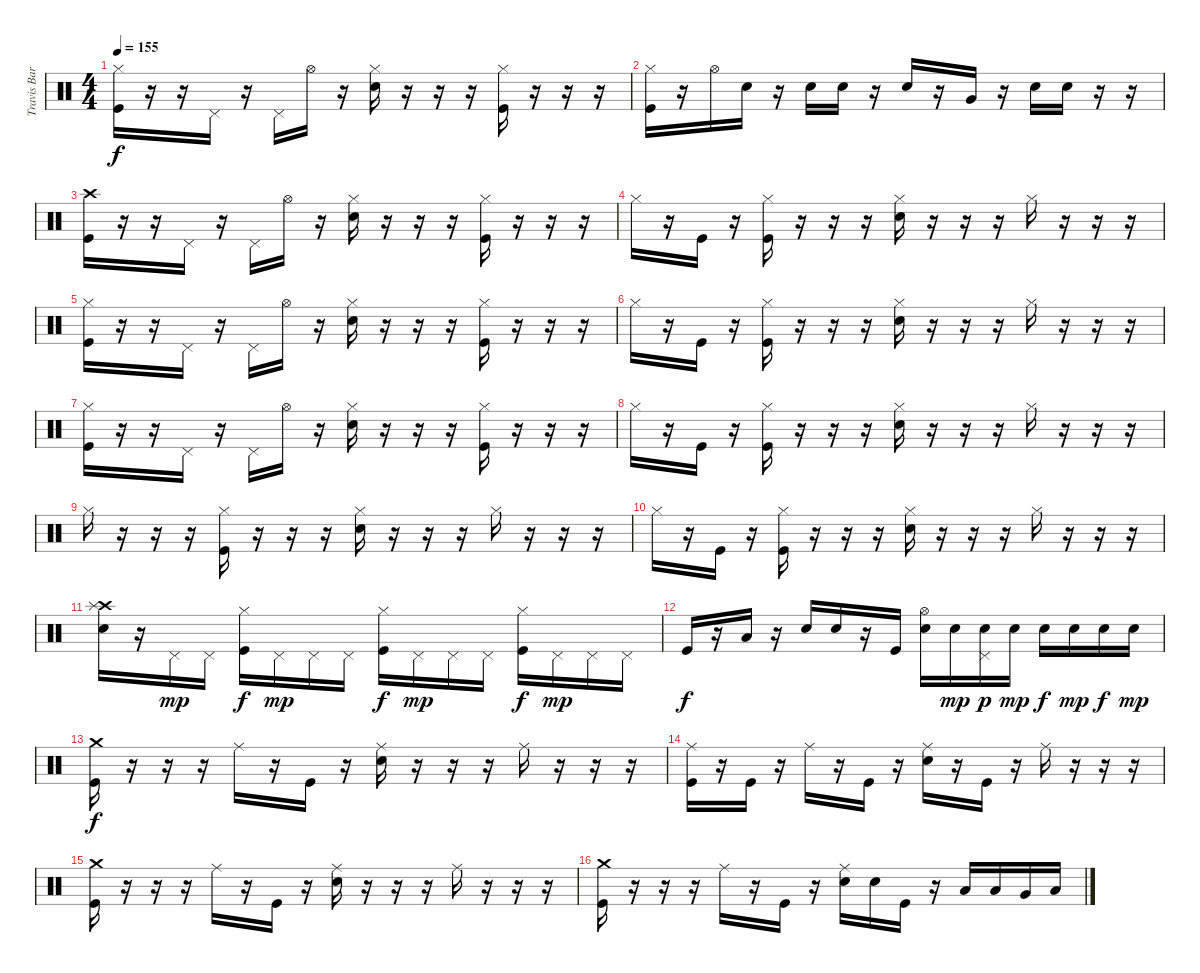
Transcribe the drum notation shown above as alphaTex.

\track ("Travis Barker(drums)" "Travis Bar") {instrument percussion}
\staff {score}
\articulation defaults
\ts (4 4)
\tempo 155
\clef neutral
\ks c
("Hi-Hat (closed)" "Kick (hit)").16{dy f} r.16 r.16 "Pedal Hi-Hat (hit)".16 r.16 "Pedal Hi-Hat (hit)".16 "Hi-Hat (open)".16 r.16 ("Hi-Hat (closed)" "Electric Snare (hit)").16 r.16 r.16 r.16 ("Hi-Hat (closed)" "Kick (hit)").16 r.16 r.16 r.16 |
("Hi-Hat (closed)" "Kick (hit)").16 r.16 "Hi-Hat (open)".16 "Electric Snare (hit)".16 r.16 "Electric Snare (hit)".16 "Electric Snare (hit)".16 r.16 "Electric Snare (hit)".16 r.16 "Very Low Tom (hit)".16 r.16 "Electric Snare (hit)".16 "Electric Snare (hit)".16 r.16 r.16 |
("Crash high (hit)" "Kick (hit)").16 r.16 r.16 "Pedal Hi-Hat (hit)".16 r.16 "Pedal Hi-Hat (hit)".16 "Hi-Hat (open)".16 r.16 ("Hi-Hat (closed)" "Electric Snare (hit)").16 r.16 r.16 r.16 ("Hi-Hat (closed)" "Kick (hit)").16 r.16 r.16 r.16 |
"Hi-Hat (closed)".16 r.16 "Kick (hit)".16 r.16 ("Hi-Hat (closed)" "Kick (hit)").16 r.16 r.16 r.16 ("Hi-Hat (closed)" "Electric Snare (hit)").16 r.16 r.16 r.16 "Hi-Hat (closed)".16 r.16 r.16 r.16 |
("Hi-Hat (closed)" "Kick (hit)").16 r.16 r.16 "Pedal Hi-Hat (hit)".16 r.16 "Pedal Hi-Hat (hit)".16 "Hi-Hat (open)".16 r.16 ("Hi-Hat (closed)" "Electric Snare (hit)").16 r.16 r.16 r.16 ("Hi-Hat (closed)" "Kick (hit)").16 r.16 r.16 r.16 |
"Hi-Hat (closed)".16 r.16 "Kick (hit)".16 r.16 ("Hi-Hat (closed)" "Kick (hit)").16 r.16 r.16 r.16 ("Hi-Hat (closed)" "Electric Snare (hit)").16 r.16 r.16 r.16 "Hi-Hat (closed)".16 r.16 r.16 r.16 |
("Hi-Hat (closed)" "Kick (hit)").16 r.16 r.16 "Pedal Hi-Hat (hit)".16 r.16 "Pedal Hi-Hat (hit)".16 "Hi-Hat (open)".16 r.16 ("Hi-Hat (closed)" "Electric Snare (hit)").16 r.16 r.16 r.16 ("Hi-Hat (closed)" "Kick (hit)").16 r.16 r.16 r.16 |
"Hi-Hat (closed)".16 r.16 "Kick (hit)".16 r.16 ("Hi-Hat (closed)" "Kick (hit)").16 r.16 r.16 r.16 ("Hi-Hat (closed)" "Electric Snare (hit)").16 r.16 r.16 r.16 "Hi-Hat (closed)".16 r.16 r.16 r.16 |
"Hi-Hat (closed)".16 r.16 r.16 r.16 ("Hi-Hat (closed)" "Kick (hit)").16 r.16 r.16 r.16 ("Hi-Hat (closed)" "Electric Snare (hit)").16 r.16 r.16 r.16 "Hi-Hat (closed)".16 r.16 r.16 r.16 |
"Hi-Hat (closed)".16 r.16 "Kick (hit)".16 r.16 ("Hi-Hat (closed)" "Kick (hit)").16 r.16 r.16 r.16 ("Hi-Hat (closed)" "Electric Snare (hit)").16 r.16 r.16 r.16 "Hi-Hat (closed)".16 r.16 r.16 r.16 |
("Crash high (hit)" "Splash (hit)" "Electric Snare (hit)").16 r.16 "Pedal Hi-Hat (hit)".16{dy mp} "Pedal Hi-Hat (hit)".16 ("Hi-Hat (closed)" "Kick (hit)").16{dy f} "Pedal Hi-Hat (hit)".16{dy mp} "Pedal Hi-Hat (hit)".16 "Pedal Hi-Hat (hit)".16 ("Hi-Hat (closed)" "Kick (hit)").16{dy f} "Pedal Hi-Hat (hit)".16{dy mp} "Pedal Hi-Hat (hit)".16 "Pedal Hi-Hat (hit)".16 ("Hi-Hat (closed)" "Kick (hit)").16{dy f} "Pedal Hi-Hat (hit)".16{dy mp} "Pedal Hi-Hat (hit)".16 "Pedal Hi-Hat (hit)".16 |
"Kick (hit)".16{dy f} r.16 "Low Floor Tom (hit)".16 r.16 "Electric Snare (hit)".16 "Electric Snare (hit)".16 r.16 "Kick (hit)".16 ("Hi-Hat (open)" "Electric Snare (hit)").16 "Electric Snare (hit)".16{dy mp} ("Pedal Hi-Hat (hit)" "Electric Snare (hit)").16{dy p} "Electric Snare (hit)".16{dy mp} "Electric Snare (hit)".16{dy f} "Electric Snare (hit)".16{dy mp} "Electric Snare (hit)".16{dy f} "Electric Snare (hit)".16{dy mp} |
("Crash medium (hit)" "Kick (hit)").16{dy f} r.16 r.16 r.16 "Ride (middle)".16 r.16 "Kick (hit)".16 r.16 ("Ride (middle)" "Electric Snare (hit)").16 r.16 r.16 r.16 "Ride (middle)".16 r.16 r.16 r.16 |
("Ride (middle)" "Kick (hit)").16 r.16 "Kick (hit)".16 r.16 "Ride (middle)".16 r.16 "Kick (hit)".16 r.16 ("Ride (middle)" "Electric Snare (hit)").16 r.16 "Kick (hit)".16 r.16 "Ride (middle)".16 r.16 r.16 r.16 |
("Crash medium (hit)" "Kick (hit)").16 r.16 r.16 r.16 "Ride (middle)".16 r.16 "Kick (hit)".16 r.16 ("Ride (middle)" "Electric Snare (hit)").16 r.16 r.16 r.16 "Ride (middle)".16 r.16 r.16 r.16 |
("Crash medium (hit)" "Kick (hit)").16 r.16 r.16 r.16 "Ride (middle)".16 r.16 "Kick (hit)".16 r.16 ("Ride (middle)" "Electric Snare (hit)").16 "Electric Snare (hit)".16 "Kick (hit)".16 r.16 "Low Tom (hit)".16 "Low Tom (hit)".16 "Very Low Tom (hit)".16 "Low Floor Tom (hit)".16
